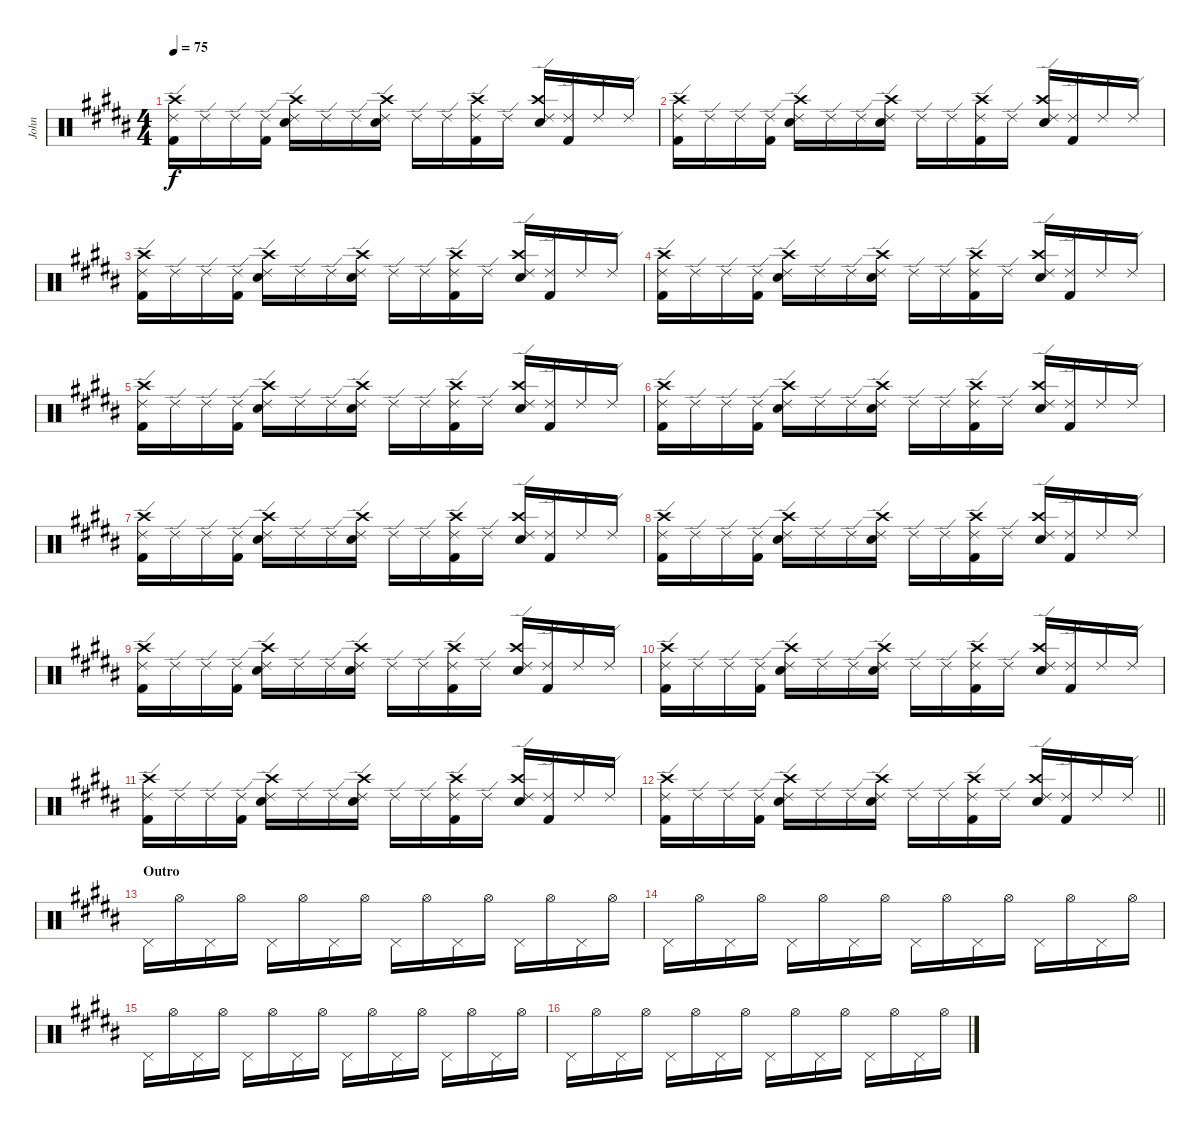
\track ("John" "John") {instrument percussion}
\staff {score}
\articulation defaults
\ts (4 4)
\tempo 75
\clef neutral
\ks g#minor
("Kick (hit) 2" "Ride (edge) 2" "Crash high (hit)").16{dy f} "Ride (edge) 2".16 "Ride (edge) 2".16 ("Kick (hit) 2" "Ride (edge) 2").16 ("Ride (edge) 2" "Snare (hit) 2" "Crash high (hit)").16 "Ride (edge) 2".16 "Ride (edge) 2".16 ("Ride (edge) 2" "Snare (hit) 2" "Crash high (hit)").16 "Ride (edge) 2".16 "Ride (edge) 2".16 ("Kick (hit) 2" "Ride (edge) 2" "Crash high (hit)").16 "Ride (edge) 2".16 ("Ride (edge) 2" "Snare (hit) 2" "Crash high (hit)").16 ("Kick (hit) 2" "Ride (edge) 2").16 "Ride (edge) 2".16 "Ride (edge) 2".16 |
("Kick (hit) 2" "Ride (edge) 2" "Crash high (hit)").16 "Ride (edge) 2".16 "Ride (edge) 2".16 ("Kick (hit) 2" "Ride (edge) 2").16 ("Ride (edge) 2" "Snare (hit) 2" "Crash high (hit)").16 "Ride (edge) 2".16 "Ride (edge) 2".16 ("Ride (edge) 2" "Snare (hit) 2" "Crash high (hit)").16 "Ride (edge) 2".16 "Ride (edge) 2".16 ("Kick (hit) 2" "Ride (edge) 2" "Crash high (hit)").16 "Ride (edge) 2".16 ("Ride (edge) 2" "Snare (hit) 2" "Crash high (hit)").16 ("Kick (hit) 2" "Ride (edge) 2").16 "Ride (edge) 2".16 "Ride (edge) 2".16 |
("Kick (hit) 2" "Ride (edge) 2" "Crash high (hit)").16 "Ride (edge) 2".16 "Ride (edge) 2".16 ("Kick (hit) 2" "Ride (edge) 2").16 ("Ride (edge) 2" "Snare (hit) 2" "Crash high (hit)").16 "Ride (edge) 2".16 "Ride (edge) 2".16 ("Ride (edge) 2" "Snare (hit) 2" "Crash high (hit)").16 "Ride (edge) 2".16 "Ride (edge) 2".16 ("Kick (hit) 2" "Ride (edge) 2" "Crash high (hit)").16 "Ride (edge) 2".16 ("Ride (edge) 2" "Snare (hit) 2" "Crash high (hit)").16 ("Kick (hit) 2" "Ride (edge) 2").16 "Ride (edge) 2".16 "Ride (edge) 2".16 |
("Kick (hit) 2" "Ride (edge) 2" "Crash high (hit)").16 "Ride (edge) 2".16 "Ride (edge) 2".16 ("Kick (hit) 2" "Ride (edge) 2").16 ("Ride (edge) 2" "Snare (hit) 2" "Crash high (hit)").16 "Ride (edge) 2".16 "Ride (edge) 2".16 ("Ride (edge) 2" "Snare (hit) 2" "Crash high (hit)").16 "Ride (edge) 2".16 "Ride (edge) 2".16 ("Kick (hit) 2" "Ride (edge) 2" "Crash high (hit)").16 "Ride (edge) 2".16 ("Ride (edge) 2" "Snare (hit) 2" "Crash high (hit)").16 ("Kick (hit) 2" "Ride (edge) 2").16 "Ride (edge) 2".16 "Ride (edge) 2".16 |
("Kick (hit) 2" "Ride (edge) 2" "Crash high (hit)").16 "Ride (edge) 2".16 "Ride (edge) 2".16 ("Kick (hit) 2" "Ride (edge) 2").16 ("Ride (edge) 2" "Snare (hit) 2" "Crash high (hit)").16 "Ride (edge) 2".16 "Ride (edge) 2".16 ("Ride (edge) 2" "Snare (hit) 2" "Crash high (hit)").16 "Ride (edge) 2".16 "Ride (edge) 2".16 ("Kick (hit) 2" "Ride (edge) 2" "Crash high (hit)").16 "Ride (edge) 2".16 ("Ride (edge) 2" "Snare (hit) 2" "Crash high (hit)").16 ("Kick (hit) 2" "Ride (edge) 2").16 "Ride (edge) 2".16 "Ride (edge) 2".16 |
("Kick (hit) 2" "Ride (edge) 2" "Crash high (hit)").16 "Ride (edge) 2".16 "Ride (edge) 2".16 ("Kick (hit) 2" "Ride (edge) 2").16 ("Ride (edge) 2" "Snare (hit) 2" "Crash high (hit)").16 "Ride (edge) 2".16 "Ride (edge) 2".16 ("Ride (edge) 2" "Snare (hit) 2" "Crash high (hit)").16 "Ride (edge) 2".16 "Ride (edge) 2".16 ("Kick (hit) 2" "Ride (edge) 2" "Crash high (hit)").16 "Ride (edge) 2".16 ("Ride (edge) 2" "Snare (hit) 2" "Crash high (hit)").16 ("Kick (hit) 2" "Ride (edge) 2").16 "Ride (edge) 2".16 "Ride (edge) 2".16 |
("Kick (hit) 2" "Ride (edge) 2" "Crash high (hit)").16 "Ride (edge) 2".16 "Ride (edge) 2".16 ("Kick (hit) 2" "Ride (edge) 2").16 ("Ride (edge) 2" "Snare (hit) 2" "Crash high (hit)").16 "Ride (edge) 2".16 "Ride (edge) 2".16 ("Ride (edge) 2" "Snare (hit) 2" "Crash high (hit)").16 "Ride (edge) 2".16 "Ride (edge) 2".16 ("Kick (hit) 2" "Ride (edge) 2" "Crash high (hit)").16 "Ride (edge) 2".16 ("Ride (edge) 2" "Snare (hit) 2" "Crash high (hit)").16 ("Kick (hit) 2" "Ride (edge) 2").16 "Ride (edge) 2".16 "Ride (edge) 2".16 |
("Kick (hit) 2" "Ride (edge) 2" "Crash high (hit)").16 "Ride (edge) 2".16 "Ride (edge) 2".16 ("Kick (hit) 2" "Ride (edge) 2").16 ("Ride (edge) 2" "Snare (hit) 2" "Crash high (hit)").16 "Ride (edge) 2".16 "Ride (edge) 2".16 ("Ride (edge) 2" "Snare (hit) 2" "Crash high (hit)").16 "Ride (edge) 2".16 "Ride (edge) 2".16 ("Kick (hit) 2" "Ride (edge) 2" "Crash high (hit)").16 "Ride (edge) 2".16 ("Ride (edge) 2" "Snare (hit) 2" "Crash high (hit)").16 ("Kick (hit) 2" "Ride (edge) 2").16 "Ride (edge) 2".16 "Ride (edge) 2".16 |
("Kick (hit) 2" "Ride (edge) 2" "Crash high (hit)").16 "Ride (edge) 2".16 "Ride (edge) 2".16 ("Kick (hit) 2" "Ride (edge) 2").16 ("Ride (edge) 2" "Snare (hit) 2" "Crash high (hit)").16 "Ride (edge) 2".16 "Ride (edge) 2".16 ("Ride (edge) 2" "Snare (hit) 2" "Crash high (hit)").16 "Ride (edge) 2".16 "Ride (edge) 2".16 ("Kick (hit) 2" "Ride (edge) 2" "Crash high (hit)").16 "Ride (edge) 2".16 ("Ride (edge) 2" "Snare (hit) 2" "Crash high (hit)").16 ("Kick (hit) 2" "Ride (edge) 2").16 "Ride (edge) 2".16 "Ride (edge) 2".16 |
("Kick (hit) 2" "Ride (edge) 2" "Crash high (hit)").16 "Ride (edge) 2".16 "Ride (edge) 2".16 ("Kick (hit) 2" "Ride (edge) 2").16 ("Ride (edge) 2" "Snare (hit) 2" "Crash high (hit)").16 "Ride (edge) 2".16 "Ride (edge) 2".16 ("Ride (edge) 2" "Snare (hit) 2" "Crash high (hit)").16 "Ride (edge) 2".16 "Ride (edge) 2".16 ("Kick (hit) 2" "Ride (edge) 2" "Crash high (hit)").16 "Ride (edge) 2".16 ("Ride (edge) 2" "Snare (hit) 2" "Crash high (hit)").16 ("Kick (hit) 2" "Ride (edge) 2").16 "Ride (edge) 2".16 "Ride (edge) 2".16 |
("Kick (hit) 2" "Ride (edge) 2" "Crash high (hit)").16 "Ride (edge) 2".16 "Ride (edge) 2".16 ("Kick (hit) 2" "Ride (edge) 2").16 ("Ride (edge) 2" "Snare (hit) 2" "Crash high (hit)").16 "Ride (edge) 2".16 "Ride (edge) 2".16 ("Ride (edge) 2" "Snare (hit) 2" "Crash high (hit)").16 "Ride (edge) 2".16 "Ride (edge) 2".16 ("Kick (hit) 2" "Ride (edge) 2" "Crash high (hit)").16 "Ride (edge) 2".16 ("Ride (edge) 2" "Snare (hit) 2" "Crash high (hit)").16 ("Kick (hit) 2" "Ride (edge) 2").16 "Ride (edge) 2".16 "Ride (edge) 2".16 |
\barLineRight lightlight
("Kick (hit) 2" "Ride (edge) 2" "Crash high (hit)").16 "Ride (edge) 2".16 "Ride (edge) 2".16 ("Kick (hit) 2" "Ride (edge) 2").16 ("Ride (edge) 2" "Snare (hit) 2" "Crash high (hit)").16 "Ride (edge) 2".16 "Ride (edge) 2".16 ("Ride (edge) 2" "Snare (hit) 2" "Crash high (hit)").16 "Ride (edge) 2".16 "Ride (edge) 2".16 ("Kick (hit) 2" "Ride (edge) 2" "Crash high (hit)").16 "Ride (edge) 2".16 ("Ride (edge) 2" "Snare (hit) 2" "Crash high (hit)").16 ("Kick (hit) 2" "Ride (edge) 2").16 "Ride (edge) 2".16 "Ride (edge) 2".16 |
\section ("" "Outro")
"Pedal Hi-Hat (hit)".16 "Hi-Hat (open)".16 "Pedal Hi-Hat (hit)".16 "Hi-Hat (open)".16 "Pedal Hi-Hat (hit)".16 "Hi-Hat (open)".16 "Pedal Hi-Hat (hit)".16 "Hi-Hat (open)".16 "Pedal Hi-Hat (hit)".16 "Hi-Hat (open)".16 "Pedal Hi-Hat (hit)".16 "Hi-Hat (open)".16 "Pedal Hi-Hat (hit)".16 "Hi-Hat (open)".16 "Pedal Hi-Hat (hit)".16 "Hi-Hat (open)".16 |
"Pedal Hi-Hat (hit)".16 "Hi-Hat (open)".16 "Pedal Hi-Hat (hit)".16 "Hi-Hat (open)".16 "Pedal Hi-Hat (hit)".16 "Hi-Hat (open)".16 "Pedal Hi-Hat (hit)".16 "Hi-Hat (open)".16 "Pedal Hi-Hat (hit)".16 "Hi-Hat (open)".16 "Pedal Hi-Hat (hit)".16 "Hi-Hat (open)".16 "Pedal Hi-Hat (hit)".16 "Hi-Hat (open)".16 "Pedal Hi-Hat (hit)".16 "Hi-Hat (open)".16 |
"Pedal Hi-Hat (hit)".16 "Hi-Hat (open)".16 "Pedal Hi-Hat (hit)".16 "Hi-Hat (open)".16 "Pedal Hi-Hat (hit)".16 "Hi-Hat (open)".16 "Pedal Hi-Hat (hit)".16 "Hi-Hat (open)".16 "Pedal Hi-Hat (hit)".16 "Hi-Hat (open)".16 "Pedal Hi-Hat (hit)".16 "Hi-Hat (open)".16 "Pedal Hi-Hat (hit)".16 "Hi-Hat (open)".16 "Pedal Hi-Hat (hit)".16 "Hi-Hat (open)".16 |
"Pedal Hi-Hat (hit)".16 "Hi-Hat (open)".16 "Pedal Hi-Hat (hit)".16 "Hi-Hat (open)".16 "Pedal Hi-Hat (hit)".16 "Hi-Hat (open)".16 "Pedal Hi-Hat (hit)".16 "Hi-Hat (open)".16 "Pedal Hi-Hat (hit)".16 "Hi-Hat (open)".16 "Pedal Hi-Hat (hit)".16 "Hi-Hat (open)".16 "Pedal Hi-Hat (hit)".16 "Hi-Hat (open)".16 "Pedal Hi-Hat (hit)".16 "Hi-Hat (open)".16
